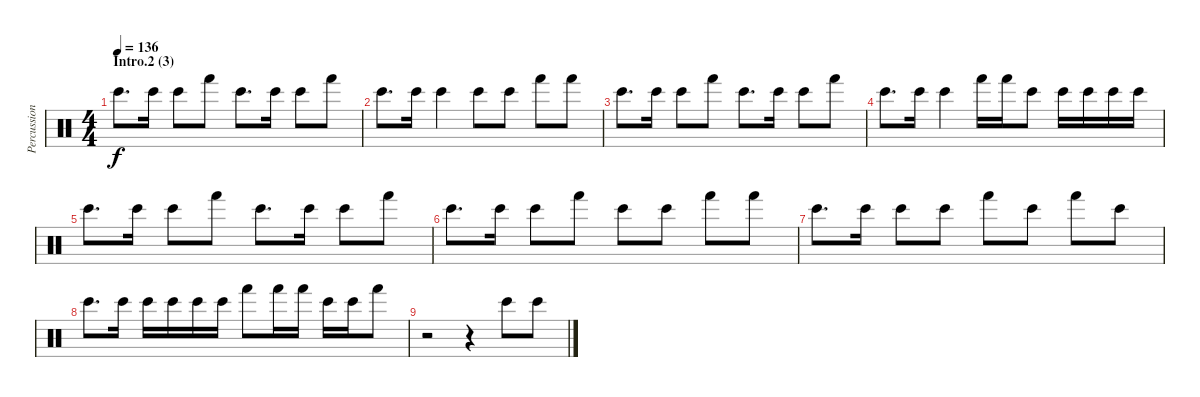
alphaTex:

\track ("Percussion" "Percussion") {instrument percussion}
\staff {score}
\articulation defaults
\ts (4 4)
\section ("" "Intro.2 (3)")
\tempo 136
\clef neutral
\ks c "Bongo High (hit)".8{d dy f} "Bongo High (hit)".16 "Bongo High (hit)".8 "Hand (hit)".8 "Bongo High (hit)".8{d} "Bongo High (hit)".16 "Bongo High (hit)".8 "Hand (hit)".8
|
"Bongo High (hit)".8{d} "Bongo High (hit)".16 "Bongo High (hit)".4 "Bongo High (hit)".8 "Bongo High (hit)".8 "Hand (hit)".8 "Hand (hit)".8 |
"Bongo High (hit)".8{d} "Bongo High (hit)".16 "Bongo High (hit)".8 "Hand (hit)".8 "Bongo High (hit)".8{d} "Bongo High (hit)".16 "Bongo High (hit)".8 "Hand (hit)".8 |
"Bongo High (hit)".8{d} "Bongo High (hit)".16 "Bongo High (hit)".4 "Hand (hit)".16 "Hand (hit)".16 "Bongo High (hit)".8 "Bongo High (hit)".16 "Bongo High (hit)".16 "Bongo High (hit)".16 "Bongo High (hit)".16 |
"Bongo High (hit)".8{d} "Bongo High (hit)".16 "Bongo High (hit)".8 "Hand (hit)".8 "Bongo High (hit)".8{d} "Bongo High (hit)".16 "Bongo High (hit)".8 "Hand (hit)".8 |
"Bongo High (hit)".8{d} "Bongo High (hit)".16 "Bongo High (hit)".8 "Hand (hit)".8 "Bongo High (hit)".8 "Bongo High (hit)".8 "Hand (hit)".8 "Hand (hit)".8 |
"Bongo High (hit)".8{d} "Bongo High (hit)".16 "Bongo High (hit)".8 "Bongo High (hit)".8 "Hand (hit)".8 "Bongo High (hit)".8 "Hand (hit)".8 "Bongo High (hit)".8 |
"Bongo High (hit)".8{d} "Bongo High (hit)".16 "Bongo High (hit)".16 "Bongo High (hit)".16 "Bongo High (hit)".16 "Bongo High (hit)".16 "Hand (hit)".8 "Hand (hit)".16 "Hand (hit)".16 "Bongo High (hit)".16 "Bongo High (hit)".16 "Hand (hit)".8 |
r.2 r.4 "Bongo High (hit)".8 "Bongo High (hit)".8
